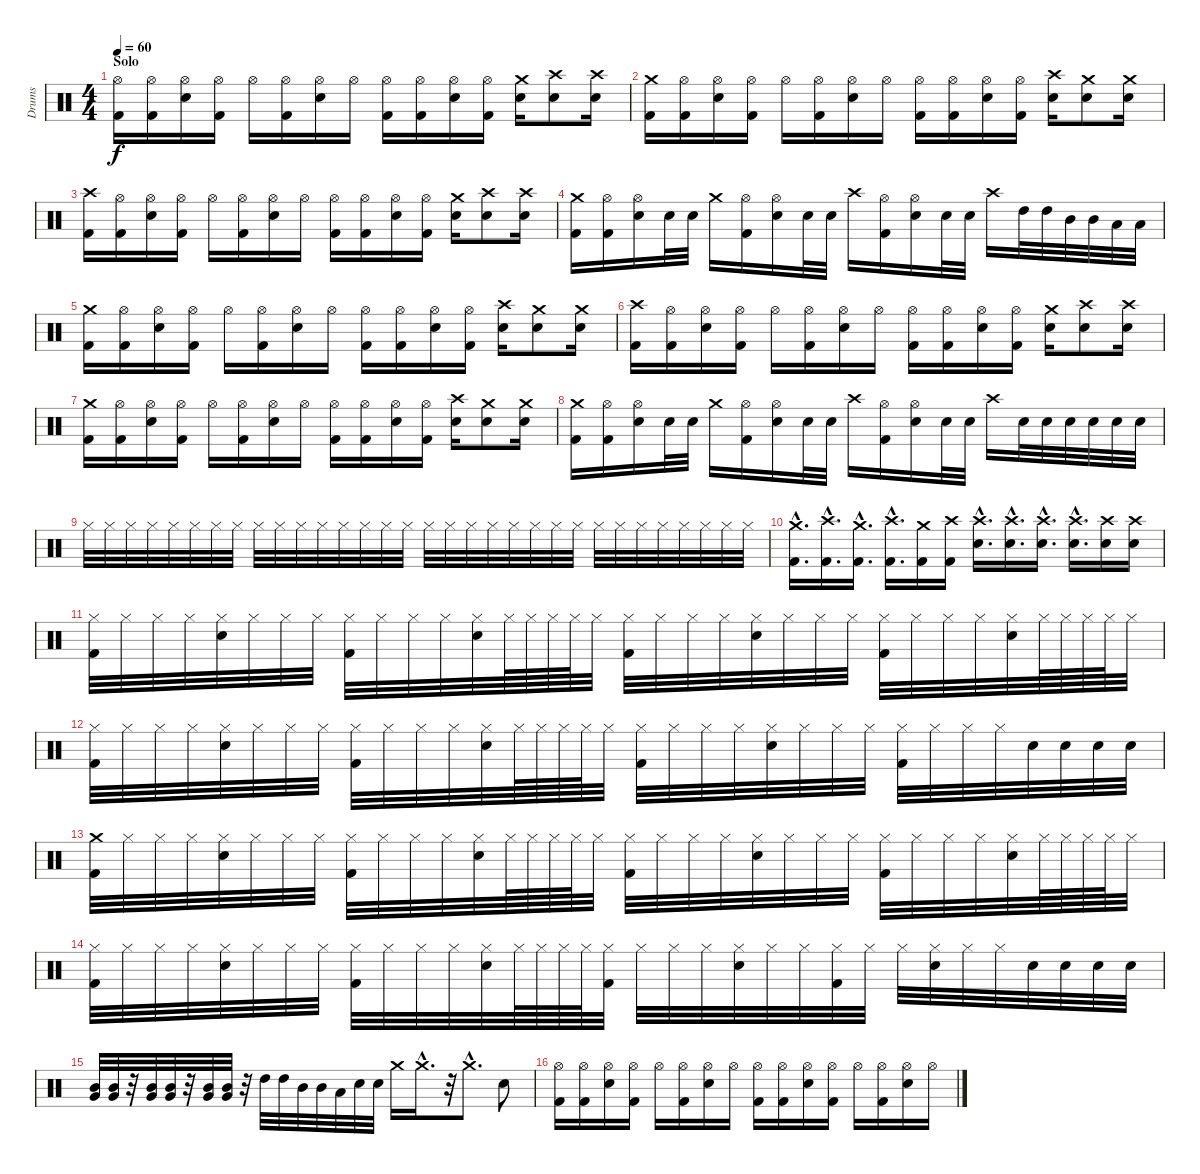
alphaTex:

\track ("Drums" "Drums") {instrument percussion}
\staff {score}
\articulation defaults
\ts (4 4)
\section ("" "Solo ")
\tempo 60
\clef neutral
\ks c
("Hi-Hat (open)" "Kick (hit) 2").16{dy f} ("Hi-Hat (open)" "Kick (hit) 2").16 ("Hi-Hat (open)" "Electric Snare (hit)").16 ("Hi-Hat (open)" "Kick (hit) 2").16 "Hi-Hat (open)".16 ("Hi-Hat (open)" "Kick (hit) 2").16 ("Hi-Hat (open)" "Electric Snare (hit)").16 "Hi-Hat (open)".16 ("Hi-Hat (open)" "Kick (hit) 2").16 ("Hi-Hat (open)" "Kick (hit) 2").16 ("Hi-Hat (open)" "Electric Snare (hit)").16 ("Hi-Hat (open)" "Kick (hit) 2").16 ("Crash medium (hit)" "Electric Snare (hit)").16 ("Crash high (hit)" "Electric Snare (hit)").8 ("Crash high (hit)" "Electric Snare (hit)").16 |
("Crash medium (hit)" "Kick (hit) 2").16 ("Hi-Hat (open)" "Kick (hit) 2").16 ("Hi-Hat (open)" "Electric Snare (hit)").16 ("Hi-Hat (open)" "Kick (hit) 2").16 "Hi-Hat (open)".16 ("Hi-Hat (open)" "Kick (hit) 2").16 ("Hi-Hat (open)" "Electric Snare (hit)").16 "Hi-Hat (open)".16 ("Hi-Hat (open)" "Kick (hit) 2").16 ("Hi-Hat (open)" "Kick (hit) 2").16 ("Hi-Hat (open)" "Electric Snare (hit)").16 ("Hi-Hat (open)" "Kick (hit) 2").16 ("Crash high (hit)" "Electric Snare (hit)").16 ("Crash medium (hit)" "Electric Snare (hit)").8 ("Crash medium (hit)" "Electric Snare (hit)").16 |
("Crash high (hit)" "Kick (hit) 2").16 ("Hi-Hat (open)" "Kick (hit) 2").16 ("Hi-Hat (open)" "Electric Snare (hit)").16 ("Hi-Hat (open)" "Kick (hit) 2").16 "Hi-Hat (open)".16 ("Hi-Hat (open)" "Kick (hit) 2").16 ("Hi-Hat (open)" "Electric Snare (hit)").16 "Hi-Hat (open)".16 ("Hi-Hat (open)" "Kick (hit) 2").16 ("Hi-Hat (open)" "Kick (hit) 2").16 ("Hi-Hat (open)" "Electric Snare (hit)").16 ("Hi-Hat (open)" "Kick (hit) 2").16 ("Crash medium (hit)" "Electric Snare (hit)").16 ("Crash high (hit)" "Electric Snare (hit)").8 ("Crash high (hit)" "Electric Snare (hit)").16 |
("Crash medium (hit)" "Kick (hit) 2").16 ("Hi-Hat (open)" "Kick (hit) 2").16 ("Hi-Hat (open)" "Electric Snare (hit)").16 "Electric Snare (hit)".32 "Electric Snare (hit)".32 "Crash medium (hit)".16 ("Hi-Hat (open)" "Kick (hit) 2").16 ("Hi-Hat (open)" "Electric Snare (hit)").16 "Electric Snare (hit)".32 "Electric Snare (hit)".32 "Crash high (hit)".16 ("Hi-Hat (open)" "Kick (hit) 2").16 ("Hi-Hat (open)" "Electric Snare (hit)").16 "Electric Snare (hit)".32 "Electric Snare (hit)".32 "Crash high (hit)".16 "High Tom (hit)".32 "High Tom (hit)".32 "Mid Tom (hit)".32 "Mid Tom (hit)".32 "Low Tom (hit)".32 "Low Tom (hit)".32 |
("Crash medium (hit)" "Kick (hit) 2").16 ("Hi-Hat (open)" "Kick (hit) 2").16 ("Hi-Hat (open)" "Electric Snare (hit)").16 ("Hi-Hat (open)" "Kick (hit) 2").16 "Hi-Hat (open)".16 ("Hi-Hat (open)" "Kick (hit) 2").16 ("Hi-Hat (open)" "Electric Snare (hit)").16 "Hi-Hat (open)".16 ("Hi-Hat (open)" "Kick (hit) 2").16 ("Hi-Hat (open)" "Kick (hit) 2").16 ("Hi-Hat (open)" "Electric Snare (hit)").16 ("Hi-Hat (open)" "Kick (hit) 2").16 ("Crash high (hit)" "Electric Snare (hit)").16 ("Crash medium (hit)" "Electric Snare (hit)").8 ("Crash medium (hit)" "Electric Snare (hit)").16 |
("Crash high (hit)" "Kick (hit) 2").16 ("Hi-Hat (open)" "Kick (hit) 2").16 ("Hi-Hat (open)" "Electric Snare (hit)").16 ("Hi-Hat (open)" "Kick (hit) 2").16 "Hi-Hat (open)".16 ("Hi-Hat (open)" "Kick (hit) 2").16 ("Hi-Hat (open)" "Electric Snare (hit)").16 "Hi-Hat (open)".16 ("Hi-Hat (open)" "Kick (hit) 2").16 ("Hi-Hat (open)" "Kick (hit) 2").16 ("Hi-Hat (open)" "Electric Snare (hit)").16 ("Hi-Hat (open)" "Kick (hit) 2").16 ("Crash medium (hit)" "Electric Snare (hit)").16 ("Crash high (hit)" "Electric Snare (hit)").8 ("Crash high (hit)" "Electric Snare (hit)").16 |
("Crash medium (hit)" "Kick (hit) 2").16 ("Hi-Hat (open)" "Kick (hit) 2").16 ("Hi-Hat (open)" "Electric Snare (hit)").16 ("Hi-Hat (open)" "Kick (hit) 2").16 "Hi-Hat (open)".16 ("Hi-Hat (open)" "Kick (hit) 2").16 ("Hi-Hat (open)" "Electric Snare (hit)").16 "Hi-Hat (open)".16 ("Hi-Hat (open)" "Kick (hit) 2").16 ("Hi-Hat (open)" "Kick (hit) 2").16 ("Hi-Hat (open)" "Electric Snare (hit)").16 ("Hi-Hat (open)" "Kick (hit) 2").16 ("Crash high (hit)" "Electric Snare (hit)").16 ("Crash medium (hit)" "Electric Snare (hit)").8 ("Crash medium (hit)" "Electric Snare (hit)").16 |
("Crash medium (hit)" "Kick (hit) 2").16 ("Hi-Hat (open)" "Kick (hit) 2").16 ("Hi-Hat (open)" "Electric Snare (hit)").16 "Electric Snare (hit)".32 "Electric Snare (hit)".32 "Crash medium (hit)".16 ("Hi-Hat (open)" "Kick (hit) 2").16 ("Hi-Hat (open)" "Electric Snare (hit)").16 "Electric Snare (hit)".32 "Electric Snare (hit)".32 "Crash high (hit)".16 ("Hi-Hat (open)" "Kick (hit) 2").16 ("Hi-Hat (open)" "Electric Snare (hit)").16 "Electric Snare (hit)".32 "Electric Snare (hit)".32 "Crash high (hit)".16 "Electric Snare (hit)".32 "Electric Snare (hit)".32 "Electric Snare (hit)".32 "Electric Snare (hit)".32 "Electric Snare (hit)".32 "Electric Snare (hit)".32 |
"Hi-Hat (closed)".32 "Hi-Hat (closed)".32 "Hi-Hat (closed)".32 "Hi-Hat (closed)".32 "Hi-Hat (closed)".32 "Hi-Hat (closed)".32 "Hi-Hat (closed)".32 "Hi-Hat (closed)".32 "Hi-Hat (closed)".32 "Hi-Hat (closed)".32 "Hi-Hat (closed)".32 "Hi-Hat (closed)".32 "Hi-Hat (closed)".32 "Hi-Hat (closed)".32 "Hi-Hat (closed)".32 "Hi-Hat (closed)".32 "Hi-Hat (closed)".32 "Hi-Hat (closed)".32 "Hi-Hat (closed)".32 "Hi-Hat (closed)".32 "Hi-Hat (closed)".32 "Hi-Hat (closed)".32 "Hi-Hat (closed)".32 "Hi-Hat (closed)".32 "Hi-Hat (closed)".32 "Hi-Hat (closed)".32 "Hi-Hat (closed)".32 "Hi-Hat (closed)".32 "Hi-Hat (closed)".32 "Hi-Hat (closed)".32 "Hi-Hat (closed)".32 "Hi-Hat (closed)".32 |
("Crash medium (hit)"{hac} "Kick (hit) 2"{hac}).16{d} ("Crash high (hit)"{hac} "Kick (hit) 2"{hac}).16{d} ("Crash medium (hit)"{hac} "Kick (hit) 2"{hac}).16{d} ("Crash high (hit)"{hac} "Kick (hit) 2"{hac}).16{d} ("Crash medium (hit)" "Kick (hit) 2").16 ("Crash high (hit)" "Kick (hit) 2").16 ("Crash high (hit)"{hac} "Electric Snare (hit)"{hac}).16{d} ("Crash high (hit)"{hac} "Electric Snare (hit)"{hac}).16{d} ("Crash high (hit)"{hac} "Electric Snare (hit)"{hac}).16{d} ("Crash high (hit)"{hac} "Electric Snare (hit)"{hac}).16{d} ("Crash high (hit)" "Electric Snare (hit)").16 ("Crash high (hit)" "Electric Snare (hit)").16 |
("Hi-Hat (closed)" "Kick (hit) 2").32 "Hi-Hat (closed)".32 "Hi-Hat (closed)".32 "Hi-Hat (closed)".32 ("Hi-Hat (closed)" "Electric Snare (hit)").32 "Hi-Hat (closed)".32 "Hi-Hat (closed)".32 "Hi-Hat (closed)".32 ("Hi-Hat (closed)" "Kick (hit) 2").32 "Hi-Hat (closed)".32 "Hi-Hat (closed)".32 "Hi-Hat (closed)".32 ("Hi-Hat (closed)" "Electric Snare (hit)").32 "Hi-Hat (closed)".64 "Hi-Hat (closed)".64 "Hi-Hat (closed)".64 "Hi-Hat (closed)".64 "Hi-Hat (closed)".32 ("Hi-Hat (closed)" "Kick (hit) 2").32 "Hi-Hat (closed)".32 "Hi-Hat (closed)".32 "Hi-Hat (closed)".32 ("Hi-Hat (closed)" "Electric Snare (hit)").32 "Hi-Hat (closed)".32 "Hi-Hat (closed)".32 "Hi-Hat (closed)".32 ("Hi-Hat (closed)" "Kick (hit) 2").32 "Hi-Hat (closed)".32 "Hi-Hat (closed)".32 "Hi-Hat (closed)".32 ("Hi-Hat (closed)" "Electric Snare (hit)").32 "Hi-Hat (closed)".64 "Hi-Hat (closed)".64 "Hi-Hat (closed)".64 "Hi-Hat (closed)".64 "Hi-Hat (closed)".32 |
("Hi-Hat (closed)" "Kick (hit) 2").32 "Hi-Hat (closed)".32 "Hi-Hat (closed)".32 "Hi-Hat (closed)".32 ("Hi-Hat (closed)" "Electric Snare (hit)").32 "Hi-Hat (closed)".32 "Hi-Hat (closed)".32 "Hi-Hat (closed)".32 ("Hi-Hat (closed)" "Kick (hit) 2").32 "Hi-Hat (closed)".32 "Hi-Hat (closed)".32 "Hi-Hat (closed)".32 ("Hi-Hat (closed)" "Electric Snare (hit)").32 "Hi-Hat (closed)".64 "Hi-Hat (closed)".64 "Hi-Hat (closed)".64 "Hi-Hat (closed)".64 "Hi-Hat (closed)".32 ("Hi-Hat (closed)" "Kick (hit) 2").32 "Hi-Hat (closed)".32 "Hi-Hat (closed)".32 "Hi-Hat (closed)".32 ("Hi-Hat (closed)" "Electric Snare (hit)").32 "Hi-Hat (closed)".32 "Hi-Hat (closed)".32 "Hi-Hat (closed)".32 ("Hi-Hat (closed)" "Kick (hit) 2").32 "Hi-Hat (closed)".32 "Hi-Hat (closed)".32 "Hi-Hat (closed)".32 "Electric Snare (hit)".32 "Electric Snare (hit)".32 "Electric Snare (hit)".32 "Electric Snare (hit)".32 |
("Crash medium (hit)" "Kick (hit) 2").32 "Hi-Hat (closed)".32 "Hi-Hat (closed)".32 "Hi-Hat (closed)".32 ("Hi-Hat (closed)" "Electric Snare (hit)").32 "Hi-Hat (closed)".32 "Hi-Hat (closed)".32 "Hi-Hat (closed)".32 ("Hi-Hat (closed)" "Kick (hit) 2").32 "Hi-Hat (closed)".32 "Hi-Hat (closed)".32 "Hi-Hat (closed)".32 ("Hi-Hat (closed)" "Electric Snare (hit)").32 "Hi-Hat (closed)".64 "Hi-Hat (closed)".64 "Hi-Hat (closed)".64 "Hi-Hat (closed)".64 "Hi-Hat (closed)".32 ("Hi-Hat (closed)" "Kick (hit) 2").32 "Hi-Hat (closed)".32 "Hi-Hat (closed)".32 "Hi-Hat (closed)".32 ("Hi-Hat (closed)" "Electric Snare (hit)").32 "Hi-Hat (closed)".32 "Hi-Hat (closed)".32 "Hi-Hat (closed)".32 ("Hi-Hat (closed)" "Kick (hit) 2").32 "Hi-Hat (closed)".32 "Hi-Hat (closed)".32 "Hi-Hat (closed)".32 ("Hi-Hat (closed)" "Electric Snare (hit)").32 "Hi-Hat (closed)".64 "Hi-Hat (closed)".64 "Hi-Hat (closed)".64 "Hi-Hat (closed)".64 "Hi-Hat (closed)".32 |
("Hi-Hat (closed)" "Kick (hit) 2").32 "Hi-Hat (closed)".32 "Hi-Hat (closed)".32 "Hi-Hat (closed)".32 ("Hi-Hat (closed)" "Electric Snare (hit)").32 "Hi-Hat (closed)".32 "Hi-Hat (closed)".32 "Hi-Hat (closed)".32 ("Hi-Hat (closed)" "Kick (hit) 2").32 "Hi-Hat (closed)".32 "Hi-Hat (closed)".32 "Hi-Hat (closed)".32 ("Hi-Hat (closed)" "Electric Snare (hit)").32 "Hi-Hat (closed)".64 "Hi-Hat (closed)".64 "Hi-Hat (closed)".64 "Hi-Hat (closed)".64 ("Hi-Hat (closed)" "Kick (hit) 2").32 "Hi-Hat (closed)".32 "Hi-Hat (closed)".32 "Hi-Hat (closed)".32 ("Hi-Hat (closed)" "Electric Snare (hit)").32 "Hi-Hat (closed)".32 "Hi-Hat (closed)".32 ("Hi-Hat (closed)" "Kick (hit) 2").32 "Hi-Hat (closed)".32 "Hi-Hat (closed)".32 ("Hi-Hat (closed)" "Electric Snare (hit)").32 "Hi-Hat (closed)".32 "Hi-Hat (closed)".32 "Electric Snare (hit)".32 "Electric Snare (hit)".32 "Electric Snare (hit)".32 "Electric Snare (hit)".32 |
("Mid Tom (hit)" "Very Low Tom (hit)").32 ("Mid Tom (hit)" "Very Low Tom (hit)").32 r.32 ("Mid Tom (hit)" "Very Low Tom (hit)").32 ("Mid Tom (hit)" "Very Low Tom (hit)").32 r.32 ("Mid Tom (hit)" "Very Low Tom (hit)").32 ("Mid Tom (hit)" "Very Low Tom (hit)").32 r.32 "High Tom (hit)".32 "High Tom (hit)".32 "Mid Tom (hit)".32 "Mid Tom (hit)".32 "Low Tom (hit)".32 "Electric Snare (hit)".32 "Electric Snare (hit)".32 "Crash medium (hit)".16 "Crash medium (hit)"{hac}.16{d} r.32 "Crash medium (hit)"{hac}.8{d} "Electric Snare (hit)".8 |
("Hi-Hat (open)" "Kick (hit) 2").16 ("Hi-Hat (open)" "Kick (hit) 2").16 ("Hi-Hat (open)" "Electric Snare (hit)").16 ("Hi-Hat (open)" "Kick (hit) 2").16 "Hi-Hat (open)".16 ("Hi-Hat (open)" "Kick (hit) 2").16 ("Hi-Hat (open)" "Electric Snare (hit)").16 "Hi-Hat (open)".16 ("Hi-Hat (open)" "Kick (hit) 2").16 ("Hi-Hat (open)" "Kick (hit) 2").16 ("Hi-Hat (open)" "Electric Snare (hit)").16 ("Hi-Hat (open)" "Kick (hit) 2").16 "Hi-Hat (open)".16 ("Hi-Hat (open)" "Kick (hit) 2").16 ("Hi-Hat (open)" "Electric Snare (hit)").16 "Hi-Hat (open)".16
